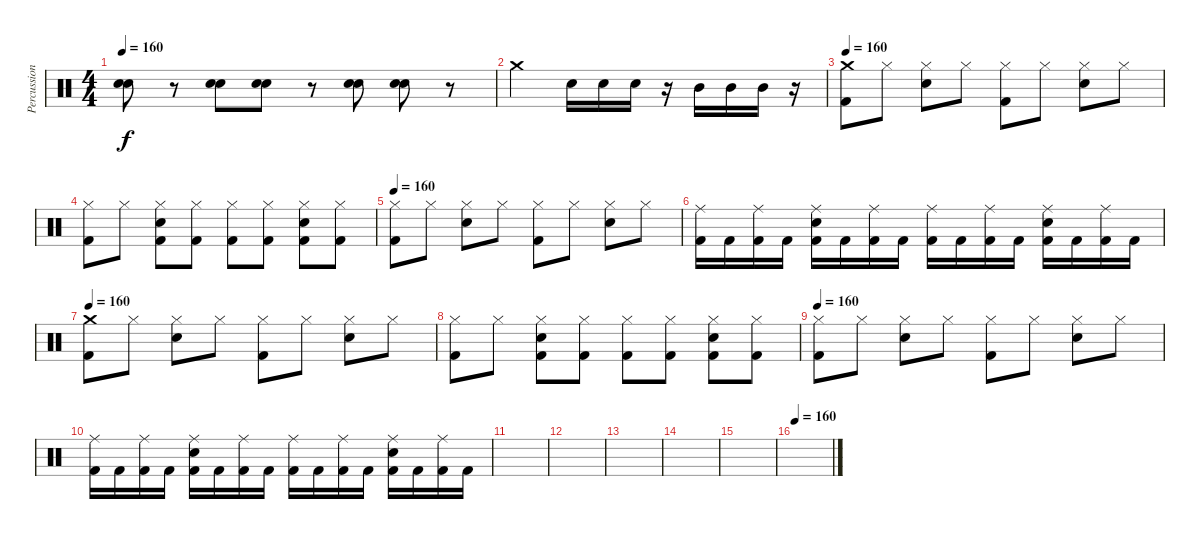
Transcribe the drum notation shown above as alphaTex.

\track ("Percussions" "Percussion") {instrument percussion}
\staff {score}
\articulation defaults
\ts (4 4)
\tempo 160
\clef neutral
\ks c
("Snare (hit) 2" "Snare (hit) 2").8{dy f} r.8 ("Snare (hit) 2" "Snare (hit) 2").8 ("Snare (hit) 2" "Snare (hit) 2").8 r.8 ("Snare (hit) 2" "Snare (hit) 2").8 ("Snare (hit) 2" "Snare (hit) 2").8 r.8 |
"Crash medium (hit)".2 "Snare (hit) 2".16 "Snare (hit) 2".16 "Snare (hit) 2".16 r.16 "Mid Tom (hit)".16 "Mid Tom (hit)".16 "Mid Tom (hit)".16 r.16 |
\tempo 160
("Crash medium (hit)" "Kick (hit) 2").8 "Hi-Hat (closed)".8 ("Hi-Hat (closed)" "Electric Snare (hit)").8 "Hi-Hat (closed)".8 ("Hi-Hat (closed)" "Kick (hit) 2").8 "Hi-Hat (closed)".8 ("Hi-Hat (closed)" "Electric Snare (hit)").8 "Hi-Hat (closed)".8 |
("Hi-Hat (closed)" "Kick (hit) 2").8 "Hi-Hat (closed)".8 ("Hi-Hat (closed)" "Kick (hit) 2" "Electric Snare (hit)").8 ("Hi-Hat (closed)" "Kick (hit) 2").8 ("Hi-Hat (closed)" "Kick (hit) 2").8 ("Hi-Hat (closed)" "Kick (hit) 2").8 ("Hi-Hat (closed)" "Kick (hit) 2" "Electric Snare (hit)").8 ("Hi-Hat (closed)" "Kick (hit) 2").8 |
\tempo 160
("Hi-Hat (closed)" "Kick (hit) 2").8 "Hi-Hat (closed)".8 ("Hi-Hat (closed)" "Electric Snare (hit)").8 "Hi-Hat (closed)".8 ("Hi-Hat (closed)" "Kick (hit) 2").8 "Hi-Hat (closed)".8 ("Hi-Hat (closed)" "Electric Snare (hit)").8 "Hi-Hat (closed)".8 |
("Kick (hit) 2" "Ride (middle)").16 "Kick (hit) 2".16 ("Kick (hit) 2" "Ride (middle)").16 "Kick (hit) 2".16 ("Kick (hit) 2" "Electric Snare (hit)" "Ride (middle)").16 "Kick (hit) 2".16 ("Kick (hit) 2" "Ride (middle)").16 "Kick (hit) 2".16 ("Kick (hit) 2" "Ride (middle)").16 "Kick (hit) 2".16 ("Kick (hit) 2" "Ride (middle)").16 "Kick (hit) 2".16 ("Kick (hit) 2" "Electric Snare (hit)" "Ride (middle)").16 "Kick (hit) 2".16 ("Kick (hit) 2" "Ride (middle)").16 "Kick (hit) 2".16 |
\tempo 160
("Crash medium (hit)" "Kick (hit) 2").8 "Hi-Hat (closed)".8 ("Hi-Hat (closed)" "Electric Snare (hit)").8 "Hi-Hat (closed)".8 ("Hi-Hat (closed)" "Kick (hit) 2").8 "Hi-Hat (closed)".8 ("Hi-Hat (closed)" "Electric Snare (hit)").8 "Hi-Hat (closed)".8 |
("Hi-Hat (closed)" "Kick (hit) 2").8 "Hi-Hat (closed)".8 ("Hi-Hat (closed)" "Kick (hit) 2" "Electric Snare (hit)").8 ("Hi-Hat (closed)" "Kick (hit) 2").8 ("Hi-Hat (closed)" "Kick (hit) 2").8 ("Hi-Hat (closed)" "Kick (hit) 2").8 ("Hi-Hat (closed)" "Kick (hit) 2" "Electric Snare (hit)").8 ("Hi-Hat (closed)" "Kick (hit) 2").8 |
\tempo 160
("Hi-Hat (closed)" "Kick (hit) 2").8 "Hi-Hat (closed)".8 ("Hi-Hat (closed)" "Electric Snare (hit)").8 "Hi-Hat (closed)".8 ("Hi-Hat (closed)" "Kick (hit) 2").8 "Hi-Hat (closed)".8 ("Hi-Hat (closed)" "Electric Snare (hit)").8 "Hi-Hat (closed)".8 |
("Kick (hit) 2" "Ride (middle)").16 "Kick (hit) 2".16 ("Kick (hit) 2" "Ride (middle)").16 "Kick (hit) 2".16 ("Kick (hit) 2" "Electric Snare (hit)" "Ride (middle)").16 "Kick (hit) 2".16 ("Kick (hit) 2" "Ride (middle)").16 "Kick (hit) 2".16 ("Kick (hit) 2" "Ride (middle)").16 "Kick (hit) 2".16 ("Kick (hit) 2" "Ride (middle)").16 "Kick (hit) 2".16 ("Kick (hit) 2" "Electric Snare (hit)" "Ride (middle)").16 "Kick (hit) 2".16 ("Kick (hit) 2" "Ride (middle)").16 "Kick (hit) 2".16 |
|
|
|
|
|
\tempo 160
